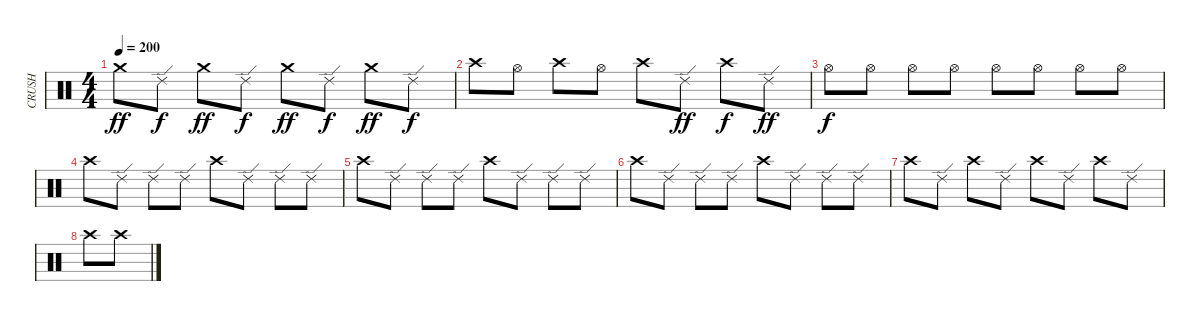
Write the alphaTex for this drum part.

\track ("CRUSH" "CRUSH") {instrument percussion}
\staff {score}
\articulation defaults
\ts (4 4)
\tempo 200
\clef neutral
\ks c "Crash medium (hit)".8{dy ff} "Ride (edge) 2".8{dy f} "Crash medium (hit)".8{dy ff} "Ride (edge) 2".8{dy f} "Crash medium (hit)".8{dy ff} "Ride (edge) 2".8{dy f} "Crash medium (hit)".8{dy ff} "Ride (edge) 2".8{dy f}
|
"Crash high (hit)".8 "Hi-Hat (open)".8 "Crash high (hit)".8 "Hi-Hat (open)".8 "Crash high (hit)".8 "Ride (edge) 2".8{dy ff} "Crash high (hit)".8{dy f} "Ride (edge) 2".8{dy ff} |
"Hi-Hat (open)".8{dy f} "Hi-Hat (open)".8 "Hi-Hat (open)".8 "Hi-Hat (open)".8 "Hi-Hat (open)".8 "Hi-Hat (open)".8 "Hi-Hat (open)".8 "Hi-Hat (open)".8 |
"Crash high (hit)".8 "Ride (edge) 2".8 "Ride (edge) 2".8 "Ride (edge) 2".8 "Crash high (hit)".8 "Ride (edge) 2".8 "Ride (edge) 2".8 "Ride (edge) 2".8 |
"Crash high (hit)".8 "Ride (edge) 2".8 "Ride (edge) 2".8 "Ride (edge) 2".8 "Crash high (hit)".8 "Ride (edge) 2".8 "Ride (edge) 2".8 "Ride (edge) 2".8 |
"Crash high (hit)".8 "Ride (edge) 2".8 "Ride (edge) 2".8 "Ride (edge) 2".8 "Crash high (hit)".8 "Ride (edge) 2".8 "Ride (edge) 2".8 "Ride (edge) 2".8 |
"Crash high (hit)".8 "Ride (edge) 2".8 "Crash high (hit)".8 "Ride (edge) 2".8 "Crash high (hit)".8 "Ride (edge) 2".8 "Crash high (hit)".8 "Ride (edge) 2".8 |
"Crash high (hit)".8 "Crash high (hit)".8
